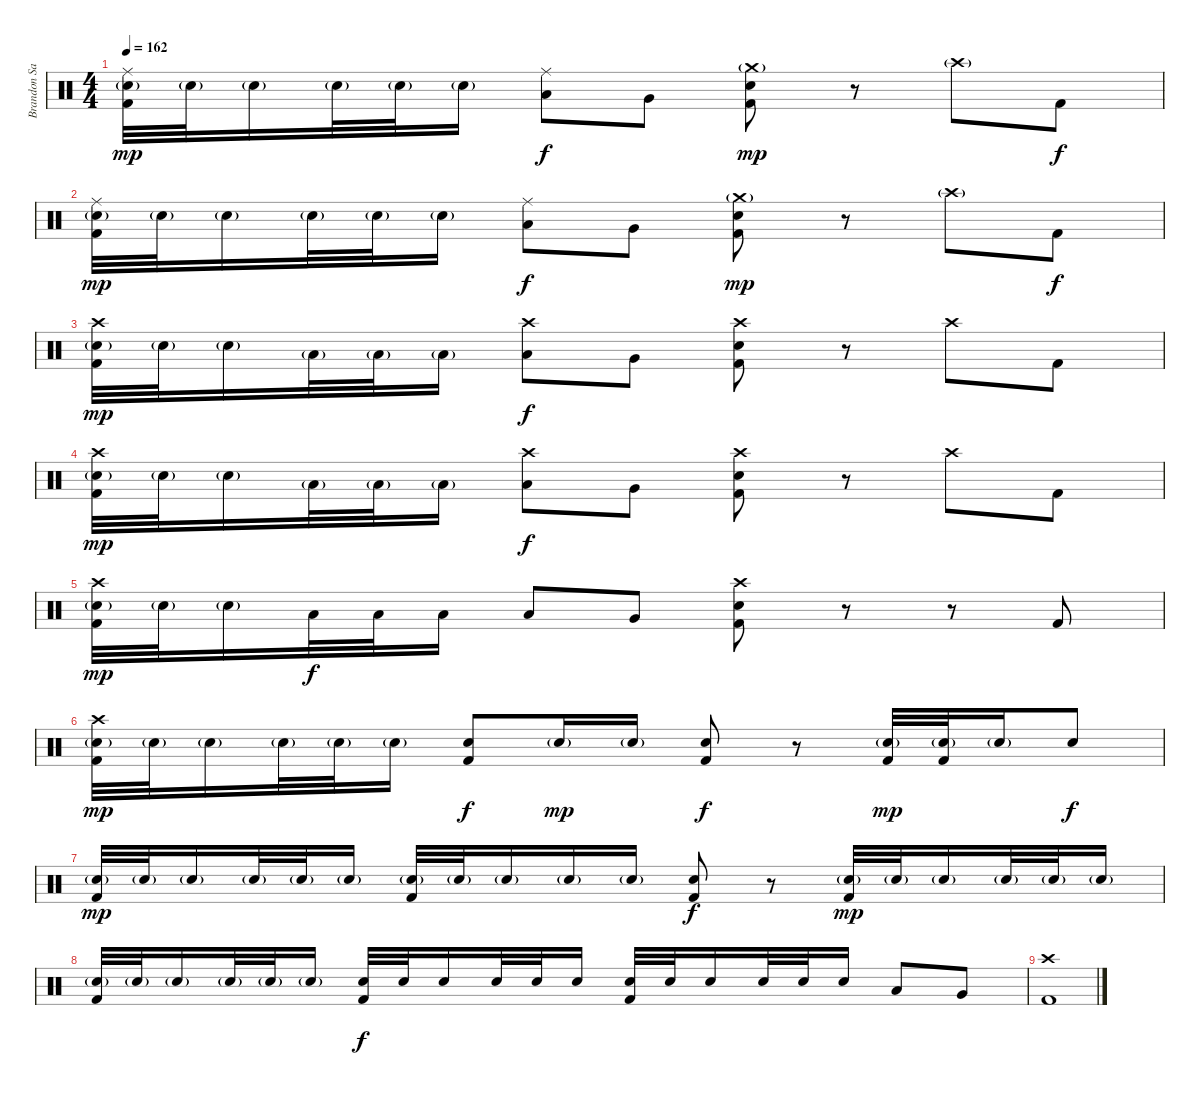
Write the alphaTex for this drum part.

\track ("Brandon Saller" "Brandon Sa") {instrument percussion}
\staff {score}
\articulation defaults
\ts (4 4)
\tempo 162
\clef neutral
\ks c
("Ride (middle)" "Electric Snare (hit)"{g} "Kick (hit) 2").32{dy mp} "Electric Snare (hit)"{g}.32 "Electric Snare (hit)"{g}.16 "Electric Snare (hit)"{g}.32 "Electric Snare (hit)"{g}.32 "Electric Snare (hit)"{g}.16 ("Ride (middle)" "Low Tom (hit)").8{dy f} "Very Low Tom (hit)".8 ("Crash medium (hit)"{g} "Electric Snare (hit)" "Kick (hit) 2").8{dy mp} r.8 "Crash high (hit)"{g}.8 "Kick (hit) 2".8{dy f} |
("Ride (middle)" "Electric Snare (hit)"{g} "Kick (hit) 2").32{dy mp} "Electric Snare (hit)"{g}.32 "Electric Snare (hit)"{g}.16 "Electric Snare (hit)"{g}.32 "Electric Snare (hit)"{g}.32 "Electric Snare (hit)"{g}.16 ("Ride (middle)" "Low Tom (hit)").8{dy f} "Very Low Tom (hit)".8 ("Crash medium (hit)"{g} "Electric Snare (hit)" "Kick (hit) 2").8{dy mp} r.8 "Crash high (hit)"{g}.8 "Kick (hit) 2".8{dy f} |
("Crash high (hit)" "Electric Snare (hit)"{g} "Kick (hit) 2").32{dy mp} "Electric Snare (hit)"{g}.32 "Electric Snare (hit)"{g}.16 "Low Floor Tom (hit)"{g}.32 "Low Floor Tom (hit)"{g}.32 "Low Floor Tom (hit)"{g}.16 ("Crash high (hit)" "Low Tom (hit)").8{dy f} "Very Low Tom (hit)".8 ("Crash high (hit)" "Electric Snare (hit)" "Kick (hit) 2").8 r.8 "Crash high (hit)".8 "Kick (hit) 2".8 |
("Crash high (hit)" "Electric Snare (hit)"{g} "Kick (hit) 2").32{dy mp} "Electric Snare (hit)"{g}.32 "Electric Snare (hit)"{g}.16 "Low Floor Tom (hit)"{g}.32 "Low Floor Tom (hit)"{g}.32 "Low Floor Tom (hit)"{g}.16 ("Crash high (hit)" "Low Tom (hit)").8{dy f} "Very Low Tom (hit)".8 ("Crash high (hit)" "Electric Snare (hit)" "Kick (hit) 2").8 r.8 "Crash high (hit)".8 "Kick (hit) 2".8 |
("Crash high (hit)" "Electric Snare (hit)"{g} "Kick (hit) 2").32{dy mp} "Electric Snare (hit)"{g}.32 "Electric Snare (hit)"{g}.16 "Low Floor Tom (hit)".32{dy f} "Low Floor Tom (hit)".32 "Low Floor Tom (hit)".16 "Low Tom (hit)".8 "Very Low Tom (hit)".8 ("Crash high (hit)" "Electric Snare (hit)" "Kick (hit) 2").8 r.8 r.8 "Kick (hit) 2".8 |
("Crash high (hit)" "Electric Snare (hit)"{g} "Kick (hit) 2").32{dy mp} "Electric Snare (hit)"{g}.32 "Electric Snare (hit)"{g}.16 "Electric Snare (hit)"{g}.32 "Electric Snare (hit)"{g}.32 "Electric Snare (hit)"{g}.16 ("Electric Snare (hit)" "Kick (hit) 2").8{dy f} "Electric Snare (hit)"{g}.16{dy mp} "Electric Snare (hit)"{g}.16 ("Electric Snare (hit)" "Kick (hit) 2").8{dy f} r.8 ("Electric Snare (hit)"{g} "Kick (hit) 2").32{dy mp} ("Electric Snare (hit)"{g} "Kick (hit) 2").32 "Electric Snare (hit)"{g}.16 "Electric Snare (hit)".8{dy f} |
("Electric Snare (hit)"{g} "Kick (hit) 2").32{dy mp} "Electric Snare (hit)"{g}.32 "Electric Snare (hit)"{g}.16 "Electric Snare (hit)"{g}.32 "Electric Snare (hit)"{g}.32 "Electric Snare (hit)"{g}.16 ("Electric Snare (hit)"{g} "Kick (hit) 2").32 "Electric Snare (hit)"{g}.32 "Electric Snare (hit)"{g}.16 "Electric Snare (hit)"{g}.16 "Electric Snare (hit)"{g}.16 ("Electric Snare (hit)" "Kick (hit) 2").8{dy f} r.8 ("Electric Snare (hit)"{g} "Kick (hit) 2").32{dy mp} "Electric Snare (hit)"{g}.32 "Electric Snare (hit)"{g}.16 "Electric Snare (hit)"{g}.32 "Electric Snare (hit)"{g}.32 "Electric Snare (hit)"{g}.16 |
("Electric Snare (hit)"{g} "Kick (hit) 2").32 "Electric Snare (hit)"{g}.32 "Electric Snare (hit)"{g}.16 "Electric Snare (hit)"{g}.32 "Electric Snare (hit)"{g}.32 "Electric Snare (hit)"{g}.16 ("Electric Snare (hit)" "Kick (hit) 2").32{dy f} "Electric Snare (hit)".32 "Electric Snare (hit)".16 "Electric Snare (hit)".32 "Electric Snare (hit)".32 "Electric Snare (hit)".16 ("Electric Snare (hit)" "Kick (hit) 2").32 "Electric Snare (hit)".32 "Electric Snare (hit)".16 "Electric Snare (hit)".32 "Electric Snare (hit)".32 "Electric Snare (hit)".16 "Low Tom (hit)".8 "Very Low Tom (hit)".8 |
("Crash high (hit)" "Kick (hit) 2").1
